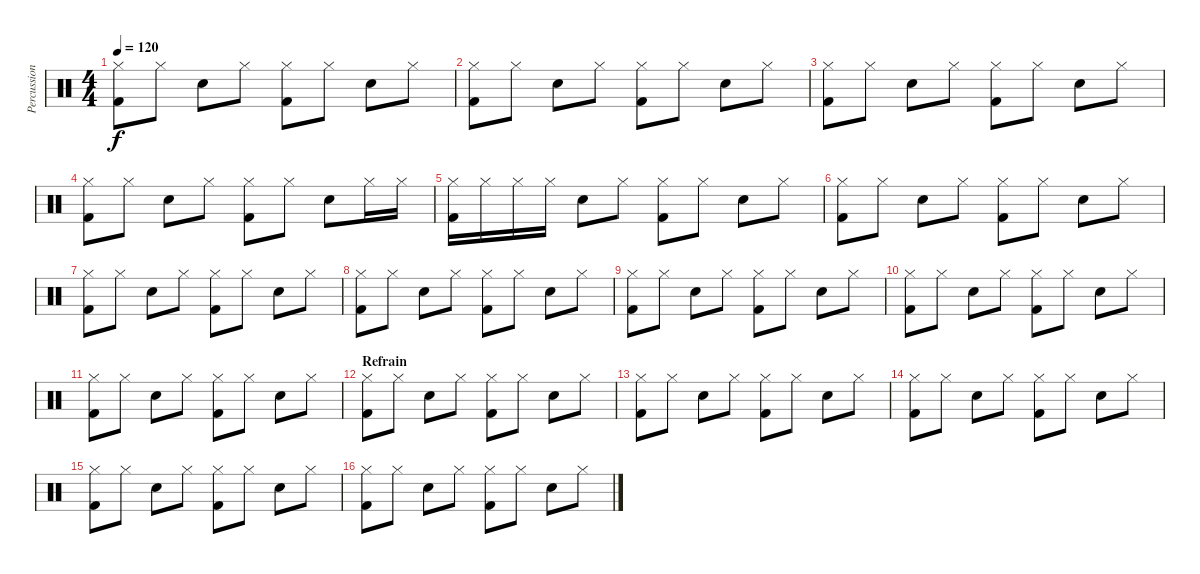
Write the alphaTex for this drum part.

\track ("Percussion (Bela)" "Percussion") {instrument percussion}
\staff {score}
\articulation defaults
\ts (4 4)
\tempo 120
\clef neutral
\ks c
("Hi-Hat (closed)" "Kick (hit) 2").8{dy f} "Hi-Hat (closed)".8 "Electric Snare (hit)".8 "Hi-Hat (closed)".8 ("Hi-Hat (closed)" "Kick (hit) 2").8 "Hi-Hat (closed)".8 "Electric Snare (hit)".8 "Hi-Hat (closed)".8 |
("Hi-Hat (closed)" "Kick (hit) 2").8 "Hi-Hat (closed)".8 "Electric Snare (hit)".8 "Hi-Hat (closed)".8 ("Hi-Hat (closed)" "Kick (hit) 2").8 "Hi-Hat (closed)".8 "Electric Snare (hit)".8 "Hi-Hat (closed)".8 |
("Hi-Hat (closed)" "Kick (hit) 2").8 "Hi-Hat (closed)".8 "Electric Snare (hit)".8 "Hi-Hat (closed)".8 ("Hi-Hat (closed)" "Kick (hit) 2").8 "Hi-Hat (closed)".8 "Electric Snare (hit)".8 "Hi-Hat (closed)".8 |
("Hi-Hat (closed)" "Kick (hit) 2").8 "Hi-Hat (closed)".8 "Electric Snare (hit)".8 "Hi-Hat (closed)".8 ("Hi-Hat (closed)" "Kick (hit) 2").8 "Hi-Hat (closed)".8 "Electric Snare (hit)".8 "Hi-Hat (closed)".16 "Hi-Hat (closed)".16 |
("Hi-Hat (closed)" "Kick (hit) 2").16 "Hi-Hat (closed)".16 "Hi-Hat (closed)".16 "Hi-Hat (closed)".16 "Electric Snare (hit)".8 "Hi-Hat (closed)".8 ("Hi-Hat (closed)" "Kick (hit) 2").8 "Hi-Hat (closed)".8 "Electric Snare (hit)".8 "Hi-Hat (closed)".8 |
("Hi-Hat (closed)" "Kick (hit) 2").8 "Hi-Hat (closed)".8 "Electric Snare (hit)".8 "Hi-Hat (closed)".8 ("Hi-Hat (closed)" "Kick (hit) 2").8 "Hi-Hat (closed)".8 "Electric Snare (hit)".8 "Hi-Hat (closed)".8 |
("Hi-Hat (closed)" "Kick (hit) 2").8 "Hi-Hat (closed)".8 "Electric Snare (hit)".8 "Hi-Hat (closed)".8 ("Hi-Hat (closed)" "Kick (hit) 2").8 "Hi-Hat (closed)".8 "Electric Snare (hit)".8 "Hi-Hat (closed)".8 |
("Hi-Hat (closed)" "Kick (hit) 2").8 "Hi-Hat (closed)".8 "Electric Snare (hit)".8 "Hi-Hat (closed)".8 ("Hi-Hat (closed)" "Kick (hit) 2").8 "Hi-Hat (closed)".8 "Electric Snare (hit)".8 "Hi-Hat (closed)".8 |
("Hi-Hat (closed)" "Kick (hit) 2").8 "Hi-Hat (closed)".8 "Electric Snare (hit)".8 "Hi-Hat (closed)".8 ("Hi-Hat (closed)" "Kick (hit) 2").8 "Hi-Hat (closed)".8 "Electric Snare (hit)".8 "Hi-Hat (closed)".8 |
("Hi-Hat (closed)" "Kick (hit) 2").8 "Hi-Hat (closed)".8 "Electric Snare (hit)".8 "Hi-Hat (closed)".8 ("Hi-Hat (closed)" "Kick (hit) 2").8 "Hi-Hat (closed)".8 "Electric Snare (hit)".8 "Hi-Hat (closed)".8 |
("Hi-Hat (closed)" "Kick (hit) 2").8 "Hi-Hat (closed)".8 "Electric Snare (hit)".8 "Hi-Hat (closed)".8 ("Hi-Hat (closed)" "Kick (hit) 2").8 "Hi-Hat (closed)".8 "Electric Snare (hit)".8 "Hi-Hat (closed)".8 |
\section ("" "Refrain")
("Hi-Hat (closed)" "Kick (hit) 2").8 "Hi-Hat (closed)".8 "Electric Snare (hit)".8 "Hi-Hat (closed)".8 ("Hi-Hat (closed)" "Kick (hit) 2").8 "Hi-Hat (closed)".8 "Electric Snare (hit)".8 "Hi-Hat (closed)".8 |
("Hi-Hat (closed)" "Kick (hit) 2").8 "Hi-Hat (closed)".8 "Electric Snare (hit)".8 "Hi-Hat (closed)".8 ("Hi-Hat (closed)" "Kick (hit) 2").8 "Hi-Hat (closed)".8 "Electric Snare (hit)".8 "Hi-Hat (closed)".8 |
("Hi-Hat (closed)" "Kick (hit) 2").8 "Hi-Hat (closed)".8 "Electric Snare (hit)".8 "Hi-Hat (closed)".8 ("Hi-Hat (closed)" "Kick (hit) 2").8 "Hi-Hat (closed)".8 "Electric Snare (hit)".8 "Hi-Hat (closed)".8 |
("Hi-Hat (closed)" "Kick (hit) 2").8 "Hi-Hat (closed)".8 "Electric Snare (hit)".8 "Hi-Hat (closed)".8 ("Hi-Hat (closed)" "Kick (hit) 2").8 "Hi-Hat (closed)".8 "Electric Snare (hit)".8 "Hi-Hat (closed)".8 |
("Hi-Hat (closed)" "Kick (hit) 2").8 "Hi-Hat (closed)".8 "Electric Snare (hit)".8 "Hi-Hat (closed)".8 ("Hi-Hat (closed)" "Kick (hit) 2").8 "Hi-Hat (closed)".8 "Electric Snare (hit)".8 "Hi-Hat (closed)".8
